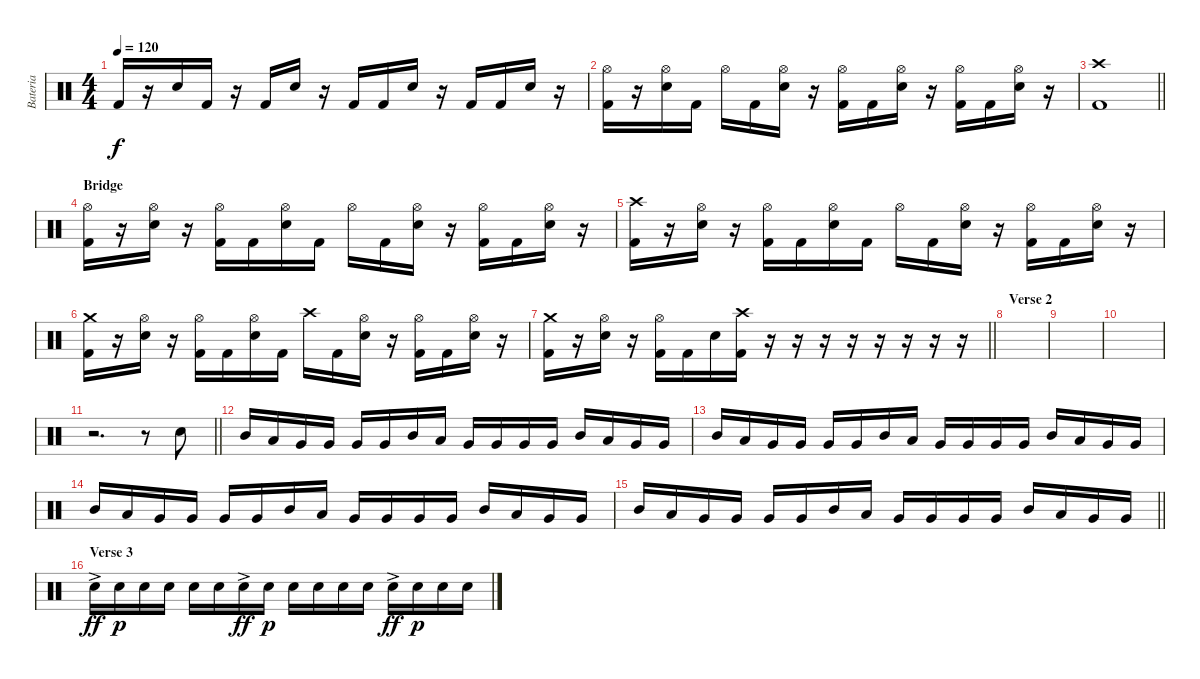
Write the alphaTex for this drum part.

\track ("Bateria" "Bateria") {instrument percussion}
\staff {score}
\articulation defaults
\ts (4 4)
\tempo 120
\clef neutral
\ks c "Kick (hit) 2".16{dy f}
r.16 "Electric Snare (hit)".16 "Kick (hit) 2".16 r.16 "Kick (hit) 2".16 "Electric Snare (hit)".16 r.16 "Kick (hit) 2".16 "Kick (hit) 2".16 "Electric Snare (hit)".16 r.16 "Kick (hit) 2".16 "Kick (hit) 2".16 "Electric Snare (hit)".16 r.16 |
("Hi-Hat (open)" "Kick (hit) 2").16 r.16 ("Hi-Hat (open)" "Electric Snare (hit)").16 "Kick (hit) 2".16 "Hi-Hat (open)".16 "Kick (hit) 2".16 ("Hi-Hat (open)" "Electric Snare (hit)").16 r.16 ("Hi-Hat (open)" "Kick (hit) 2").16 "Kick (hit) 2".16 ("Hi-Hat (open)" "Electric Snare (hit)").16 r.16 ("Hi-Hat (open)" "Kick (hit) 2").16 "Kick (hit) 2".16 ("Hi-Hat (open)" "Electric Snare (hit)").16 r.16 |
\barLineRight lightlight
("Crash high (hit)" "Kick (hit) 2").1 |
\section ("" "Bridge")
("Hi-Hat (open)" "Kick (hit) 2").16 r.16 ("Hi-Hat (open)" "Electric Snare (hit)").16 r.16 ("Hi-Hat (open)" "Kick (hit) 2").16 "Kick (hit) 2".16 ("Hi-Hat (open)" "Electric Snare (hit)").16 "Kick (hit) 2".16 "Hi-Hat (open)".16 "Kick (hit) 2".16 ("Hi-Hat (open)" "Electric Snare (hit)").16 r.16 ("Hi-Hat (open)" "Kick (hit) 2").16 "Kick (hit) 2".16 ("Hi-Hat (open)" "Electric Snare (hit)").16 r.16 |
("Crash high (hit)" "Kick (hit) 2").16 r.16 ("Hi-Hat (open)" "Electric Snare (hit)").16 r.16 ("Hi-Hat (open)" "Kick (hit) 2").16 "Kick (hit) 2".16 ("Hi-Hat (open)" "Electric Snare (hit)").16 "Kick (hit) 2".16 "Hi-Hat (open)".16 "Kick (hit) 2".16 ("Hi-Hat (open)" "Electric Snare (hit)").16 r.16 ("Hi-Hat (open)" "Kick (hit) 2").16 "Kick (hit) 2".16 ("Hi-Hat (open)" "Electric Snare (hit)").16 r.16 |
("Crash medium (hit)" "Kick (hit) 2").16 r.16 ("Hi-Hat (open)" "Electric Snare (hit)").16 r.16 ("Hi-Hat (open)" "Kick (hit) 2").16 "Kick (hit) 2".16 ("Hi-Hat (open)" "Electric Snare (hit)").16 "Kick (hit) 2".16 "Crash high (hit)".16 "Kick (hit) 2".16 ("Hi-Hat (open)" "Electric Snare (hit)").16 r.16 ("Hi-Hat (open)" "Kick (hit) 2").16 "Kick (hit) 2".16 ("Hi-Hat (open)" "Electric Snare (hit)").16 r.16 |
\barLineRight lightlight
("Crash medium (hit)" "Kick (hit) 2").16 r.16 ("Hi-Hat (open)" "Electric Snare (hit)").16 r.16 ("Hi-Hat (open)" "Kick (hit) 2").16 "Kick (hit) 2".16 "Electric Snare (hit)".16 ("Crash high (hit)" "Kick (hit) 2").16 r.16 r.16 r.16 r.16 r.16 r.16 r.16 r.16 |
\section ("" "Verse 2")
|
|
|
\barLineRight lightlight
r.2{d} r.8 "Electric Snare (hit)".8 |
"Mid Tom (hit)".16 "Low Tom (hit)".16 "Very Low Tom (hit)".16 "Very Low Tom (hit)".16 "Very Low Tom (hit)".16 "Very Low Tom (hit)".16 "Mid Tom (hit)".16 "Low Tom (hit)".16 "Very Low Tom (hit)".16 "Very Low Tom (hit)".16 "Very Low Tom (hit)".16 "Very Low Tom (hit)".16 "Mid Tom (hit)".16 "Low Tom (hit)".16 "Very Low Tom (hit)".16 "Very Low Tom (hit)".16 |
"Mid Tom (hit)".16 "Low Tom (hit)".16 "Very Low Tom (hit)".16 "Very Low Tom (hit)".16 "Very Low Tom (hit)".16 "Very Low Tom (hit)".16 "Mid Tom (hit)".16 "Low Tom (hit)".16 "Very Low Tom (hit)".16 "Very Low Tom (hit)".16 "Very Low Tom (hit)".16 "Very Low Tom (hit)".16 "Mid Tom (hit)".16 "Low Tom (hit)".16 "Very Low Tom (hit)".16 "Very Low Tom (hit)".16 |
"Mid Tom (hit)".16 "Low Tom (hit)".16 "Very Low Tom (hit)".16 "Very Low Tom (hit)".16 "Very Low Tom (hit)".16 "Very Low Tom (hit)".16 "Mid Tom (hit)".16 "Low Tom (hit)".16 "Very Low Tom (hit)".16 "Very Low Tom (hit)".16 "Very Low Tom (hit)".16 "Very Low Tom (hit)".16 "Mid Tom (hit)".16 "Low Tom (hit)".16 "Very Low Tom (hit)".16 "Very Low Tom (hit)".16 |
\barLineRight lightlight "Mid Tom (hit)".16 "Low Tom (hit)".16 "Very Low Tom (hit)".16 "Very Low Tom (hit)".16 "Very Low Tom (hit)".16 "Very Low Tom (hit)".16 "Mid Tom (hit)".16 "Low Tom (hit)".16 "Very Low Tom (hit)".16 "Very Low Tom (hit)".16 "Very Low Tom (hit)".16 "Very Low Tom (hit)".16 "Mid Tom (hit)".16 "Low Tom (hit)".16 "Very Low Tom (hit)".16 "Very Low Tom (hit)".16
|
\section ("" "Verse 3")
"Electric Snare (hit)"{ac}.16{dy ff} "Electric Snare (hit)".16{dy p} "Electric Snare (hit)".16 "Electric Snare (hit)".16 "Electric Snare (hit)".16 "Electric Snare (hit)".16 "Electric Snare (hit)"{ac}.16{dy ff} "Electric Snare (hit)".16{dy p} "Electric Snare (hit)".16 "Electric Snare (hit)".16 "Electric Snare (hit)".16 "Electric Snare (hit)".16 "Electric Snare (hit)"{ac}.16{dy ff} "Electric Snare (hit)".16{dy p} "Electric Snare (hit)".16 "Electric Snare (hit)".16
